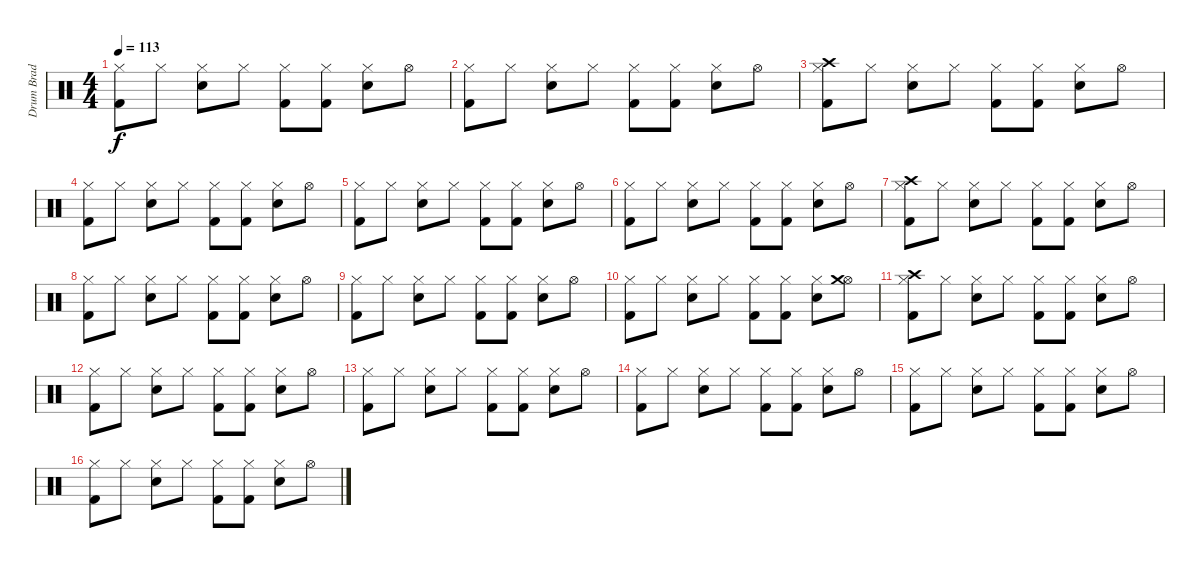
\track ("Drum Brad Wilk" "Drum Brad ") {instrument percussion}
\staff {score}
\articulation defaults
\ts (4 4)
\tempo 113
\clef neutral
\ks c
("Hi-Hat (closed)" "Kick (hit) 2").8{dy f} "Hi-Hat (closed)".8 ("Hi-Hat (closed)" "Snare (hit) 2").8 "Hi-Hat (closed)".8 ("Hi-Hat (closed)" "Kick (hit) 2").8 ("Hi-Hat (closed)" "Kick (hit) 2").8 ("Hi-Hat (closed)" "Snare (hit) 2").8 "Hi-Hat (open)".8 |
("Hi-Hat (closed)" "Kick (hit) 2").8 "Hi-Hat (closed)".8 ("Hi-Hat (closed)" "Snare (hit) 2").8 "Hi-Hat (closed)".8 ("Hi-Hat (closed)" "Kick (hit) 2").8 ("Hi-Hat (closed)" "Kick (hit) 2").8 ("Hi-Hat (closed)" "Snare (hit) 2").8 "Hi-Hat (open)".8 |
("Hi-Hat (closed)" "Crash high (hit)" "Kick (hit) 2").8 "Hi-Hat (closed)".8 ("Hi-Hat (closed)" "Snare (hit) 2").8 "Hi-Hat (closed)".8 ("Hi-Hat (closed)" "Kick (hit) 2").8 ("Hi-Hat (closed)" "Kick (hit) 2").8 ("Hi-Hat (closed)" "Snare (hit) 2").8 "Hi-Hat (open)".8 |
("Hi-Hat (closed)" "Kick (hit) 2").8 "Hi-Hat (closed)".8 ("Hi-Hat (closed)" "Snare (hit) 2").8 "Hi-Hat (closed)".8 ("Hi-Hat (closed)" "Kick (hit) 2").8 ("Hi-Hat (closed)" "Kick (hit) 2").8 ("Hi-Hat (closed)" "Snare (hit) 2").8 "Hi-Hat (open)".8 |
("Hi-Hat (closed)" "Kick (hit) 2").8 "Hi-Hat (closed)".8 ("Hi-Hat (closed)" "Snare (hit) 2").8 "Hi-Hat (closed)".8 ("Hi-Hat (closed)" "Kick (hit) 2").8 ("Hi-Hat (closed)" "Kick (hit) 2").8 ("Hi-Hat (closed)" "Snare (hit) 2").8 "Hi-Hat (open)".8 |
("Hi-Hat (closed)" "Kick (hit) 2").8 "Hi-Hat (closed)".8 ("Hi-Hat (closed)" "Snare (hit) 2").8 "Hi-Hat (closed)".8 ("Hi-Hat (closed)" "Kick (hit) 2").8 ("Hi-Hat (closed)" "Kick (hit) 2").8 ("Hi-Hat (closed)" "Snare (hit) 2").8 "Hi-Hat (open)".8 |
("Hi-Hat (closed)" "Crash high (hit)" "Kick (hit) 2").8 "Hi-Hat (closed)".8 ("Hi-Hat (closed)" "Snare (hit) 2").8 "Hi-Hat (closed)".8 ("Hi-Hat (closed)" "Kick (hit) 2").8 ("Hi-Hat (closed)" "Kick (hit) 2").8 ("Hi-Hat (closed)" "Snare (hit) 2").8 "Hi-Hat (open)".8 |
("Hi-Hat (closed)" "Kick (hit) 2").8 "Hi-Hat (closed)".8 ("Hi-Hat (closed)" "Snare (hit) 2").8 "Hi-Hat (closed)".8 ("Hi-Hat (closed)" "Kick (hit) 2").8 ("Hi-Hat (closed)" "Kick (hit) 2").8 ("Hi-Hat (closed)" "Snare (hit) 2").8 "Hi-Hat (open)".8 |
("Hi-Hat (closed)" "Kick (hit) 2").8 "Hi-Hat (closed)".8 ("Hi-Hat (closed)" "Snare (hit) 2").8 "Hi-Hat (closed)".8 ("Hi-Hat (closed)" "Kick (hit) 2").8 ("Hi-Hat (closed)" "Kick (hit) 2").8 ("Hi-Hat (closed)" "Snare (hit) 2").8 "Hi-Hat (open)".8 |
("Hi-Hat (closed)" "Kick (hit) 2").8 "Hi-Hat (closed)".8 ("Hi-Hat (closed)" "Snare (hit) 2").8 "Hi-Hat (closed)".8 ("Hi-Hat (closed)" "Kick (hit) 2").8 ("Hi-Hat (closed)" "Kick (hit) 2").8 ("Hi-Hat (closed)" "Snare (hit) 2").8 ("Hi-Hat (open)" "Crash medium (hit)").8 |
("Hi-Hat (closed)" "Crash high (hit)" "Kick (hit) 2").8 "Hi-Hat (closed)".8 ("Hi-Hat (closed)" "Snare (hit) 2").8 "Hi-Hat (closed)".8 ("Hi-Hat (closed)" "Kick (hit) 2").8 ("Hi-Hat (closed)" "Kick (hit) 2").8 ("Hi-Hat (closed)" "Snare (hit) 2").8 "Hi-Hat (open)".8 |
("Hi-Hat (closed)" "Kick (hit) 2").8 "Hi-Hat (closed)".8 ("Hi-Hat (closed)" "Snare (hit) 2").8 "Hi-Hat (closed)".8 ("Hi-Hat (closed)" "Kick (hit) 2").8 ("Hi-Hat (closed)" "Kick (hit) 2").8 ("Hi-Hat (closed)" "Snare (hit) 2").8 "Hi-Hat (open)".8 |
("Hi-Hat (closed)" "Kick (hit) 2").8 "Hi-Hat (closed)".8 ("Hi-Hat (closed)" "Snare (hit) 2").8 "Hi-Hat (closed)".8 ("Hi-Hat (closed)" "Kick (hit) 2").8 ("Hi-Hat (closed)" "Kick (hit) 2").8 ("Hi-Hat (closed)" "Snare (hit) 2").8 "Hi-Hat (open)".8 |
("Hi-Hat (closed)" "Kick (hit) 2").8 "Hi-Hat (closed)".8 ("Hi-Hat (closed)" "Snare (hit) 2").8 "Hi-Hat (closed)".8 ("Hi-Hat (closed)" "Kick (hit) 2").8 ("Hi-Hat (closed)" "Kick (hit) 2").8 ("Hi-Hat (closed)" "Snare (hit) 2").8 "Hi-Hat (open)".8 |
("Hi-Hat (closed)" "Kick (hit) 2").8 "Hi-Hat (closed)".8 ("Hi-Hat (closed)" "Snare (hit) 2").8 "Hi-Hat (closed)".8 ("Hi-Hat (closed)" "Kick (hit) 2").8 ("Hi-Hat (closed)" "Kick (hit) 2").8 ("Hi-Hat (closed)" "Snare (hit) 2").8 "Hi-Hat (open)".8 |
("Hi-Hat (closed)" "Kick (hit) 2").8 "Hi-Hat (closed)".8 ("Hi-Hat (closed)" "Snare (hit) 2").8 "Hi-Hat (closed)".8 ("Hi-Hat (closed)" "Kick (hit) 2").8 ("Hi-Hat (closed)" "Kick (hit) 2").8 ("Hi-Hat (closed)" "Snare (hit) 2").8 "Hi-Hat (open)".8
